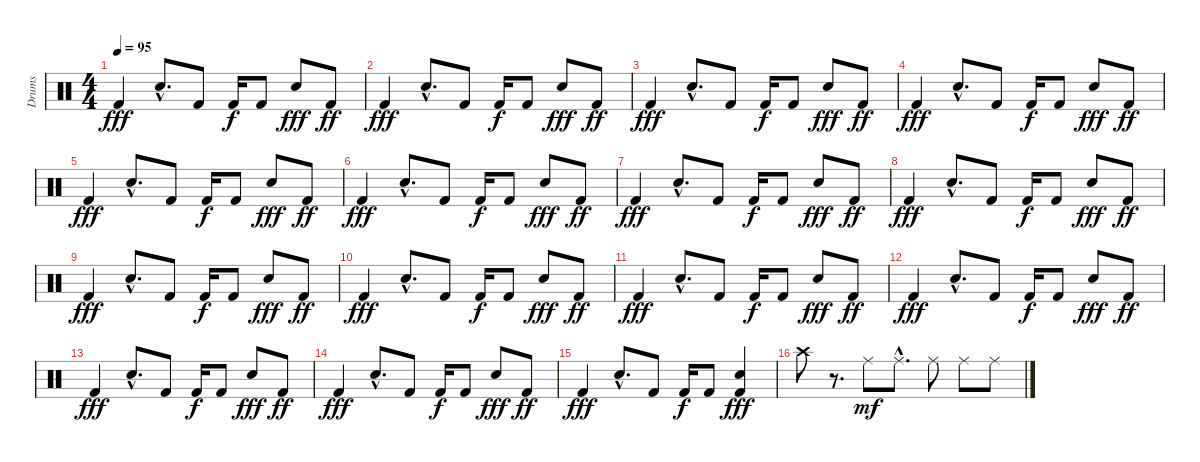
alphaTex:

\track ("Drums" "Drums") {instrument percussion}
\staff {score}
\articulation defaults
\ts (4 4)
\tempo 95
\clef neutral
\ks c "Kick (hit) 2".4{dy fff} "Electric Snare (hit)"{hac}.8{d} "Kick (hit) 2".8 "Kick (hit) 2".16{dy f} "Kick (hit) 2".8 "Electric Snare (hit)".8{dy fff} "Kick (hit) 2".8{dy ff}
|
"Kick (hit) 2".4{dy fff} "Electric Snare (hit)"{hac}.8{d} "Kick (hit) 2".8 "Kick (hit) 2".16{dy f} "Kick (hit) 2".8 "Electric Snare (hit)".8{dy fff} "Kick (hit) 2".8{dy ff} |
"Kick (hit) 2".4{dy fff} "Electric Snare (hit)"{hac}.8{d} "Kick (hit) 2".8 "Kick (hit) 2".16{dy f} "Kick (hit) 2".8 "Electric Snare (hit)".8{dy fff} "Kick (hit) 2".8{dy ff} |
"Kick (hit) 2".4{dy fff} "Electric Snare (hit)"{hac}.8{d} "Kick (hit) 2".8 "Kick (hit) 2".16{dy f} "Kick (hit) 2".8 "Electric Snare (hit)".8{dy fff} "Kick (hit) 2".8{dy ff} |
"Kick (hit) 2".4{dy fff} "Electric Snare (hit)"{hac}.8{d} "Kick (hit) 2".8 "Kick (hit) 2".16{dy f} "Kick (hit) 2".8 "Electric Snare (hit)".8{dy fff} "Kick (hit) 2".8{dy ff} |
"Kick (hit) 2".4{dy fff} "Electric Snare (hit)"{hac}.8{d} "Kick (hit) 2".8 "Kick (hit) 2".16{dy f} "Kick (hit) 2".8 "Electric Snare (hit)".8{dy fff} "Kick (hit) 2".8{dy ff} |
"Kick (hit) 2".4{dy fff} "Electric Snare (hit)"{hac}.8{d} "Kick (hit) 2".8 "Kick (hit) 2".16{dy f} "Kick (hit) 2".8 "Electric Snare (hit)".8{dy fff} "Kick (hit) 2".8{dy ff} |
"Kick (hit) 2".4{dy fff} "Electric Snare (hit)"{hac}.8{d} "Kick (hit) 2".8 "Kick (hit) 2".16{dy f} "Kick (hit) 2".8 "Electric Snare (hit)".8{dy fff} "Kick (hit) 2".8{dy ff} |
"Kick (hit) 2".4{dy fff} "Electric Snare (hit)"{hac}.8{d} "Kick (hit) 2".8 "Kick (hit) 2".16{dy f} "Kick (hit) 2".8 "Electric Snare (hit)".8{dy fff} "Kick (hit) 2".8{dy ff} |
"Kick (hit) 2".4{dy fff} "Electric Snare (hit)"{hac}.8{d} "Kick (hit) 2".8 "Kick (hit) 2".16{dy f} "Kick (hit) 2".8 "Electric Snare (hit)".8{dy fff} "Kick (hit) 2".8{dy ff} |
"Kick (hit) 2".4{dy fff} "Electric Snare (hit)"{hac}.8{d} "Kick (hit) 2".8 "Kick (hit) 2".16{dy f} "Kick (hit) 2".8 "Electric Snare (hit)".8{dy fff} "Kick (hit) 2".8{dy ff} |
"Kick (hit) 2".4{dy fff} "Electric Snare (hit)"{hac}.8{d} "Kick (hit) 2".8 "Kick (hit) 2".16{dy f} "Kick (hit) 2".8 "Electric Snare (hit)".8{dy fff} "Kick (hit) 2".8{dy ff} |
"Kick (hit) 2".4{dy fff} "Electric Snare (hit)"{hac}.8{d} "Kick (hit) 2".8 "Kick (hit) 2".16{dy f} "Kick (hit) 2".8 "Electric Snare (hit)".8{dy fff} "Kick (hit) 2".8{dy ff} |
"Kick (hit) 2".4{dy fff} "Electric Snare (hit)"{hac}.8{d} "Kick (hit) 2".8 "Kick (hit) 2".16{dy f} "Kick (hit) 2".8 "Electric Snare (hit)".8{dy fff} "Kick (hit) 2".8{dy ff} |
"Kick (hit) 2".4{dy fff} "Electric Snare (hit)"{hac}.8{d} "Kick (hit) 2".8 "Kick (hit) 2".16{dy f} "Kick (hit) 2".8 ("Electric Snare (hit)" "Kick (hit) 2").4{dy fff} |
"Crash high (hit)".8 r.8{d} "Ride (middle)".8{dy mf} "Ride (middle)"{hac}.8{d} "Ride (middle)".8 "Ride (middle)".8 "Ride (middle)".8
